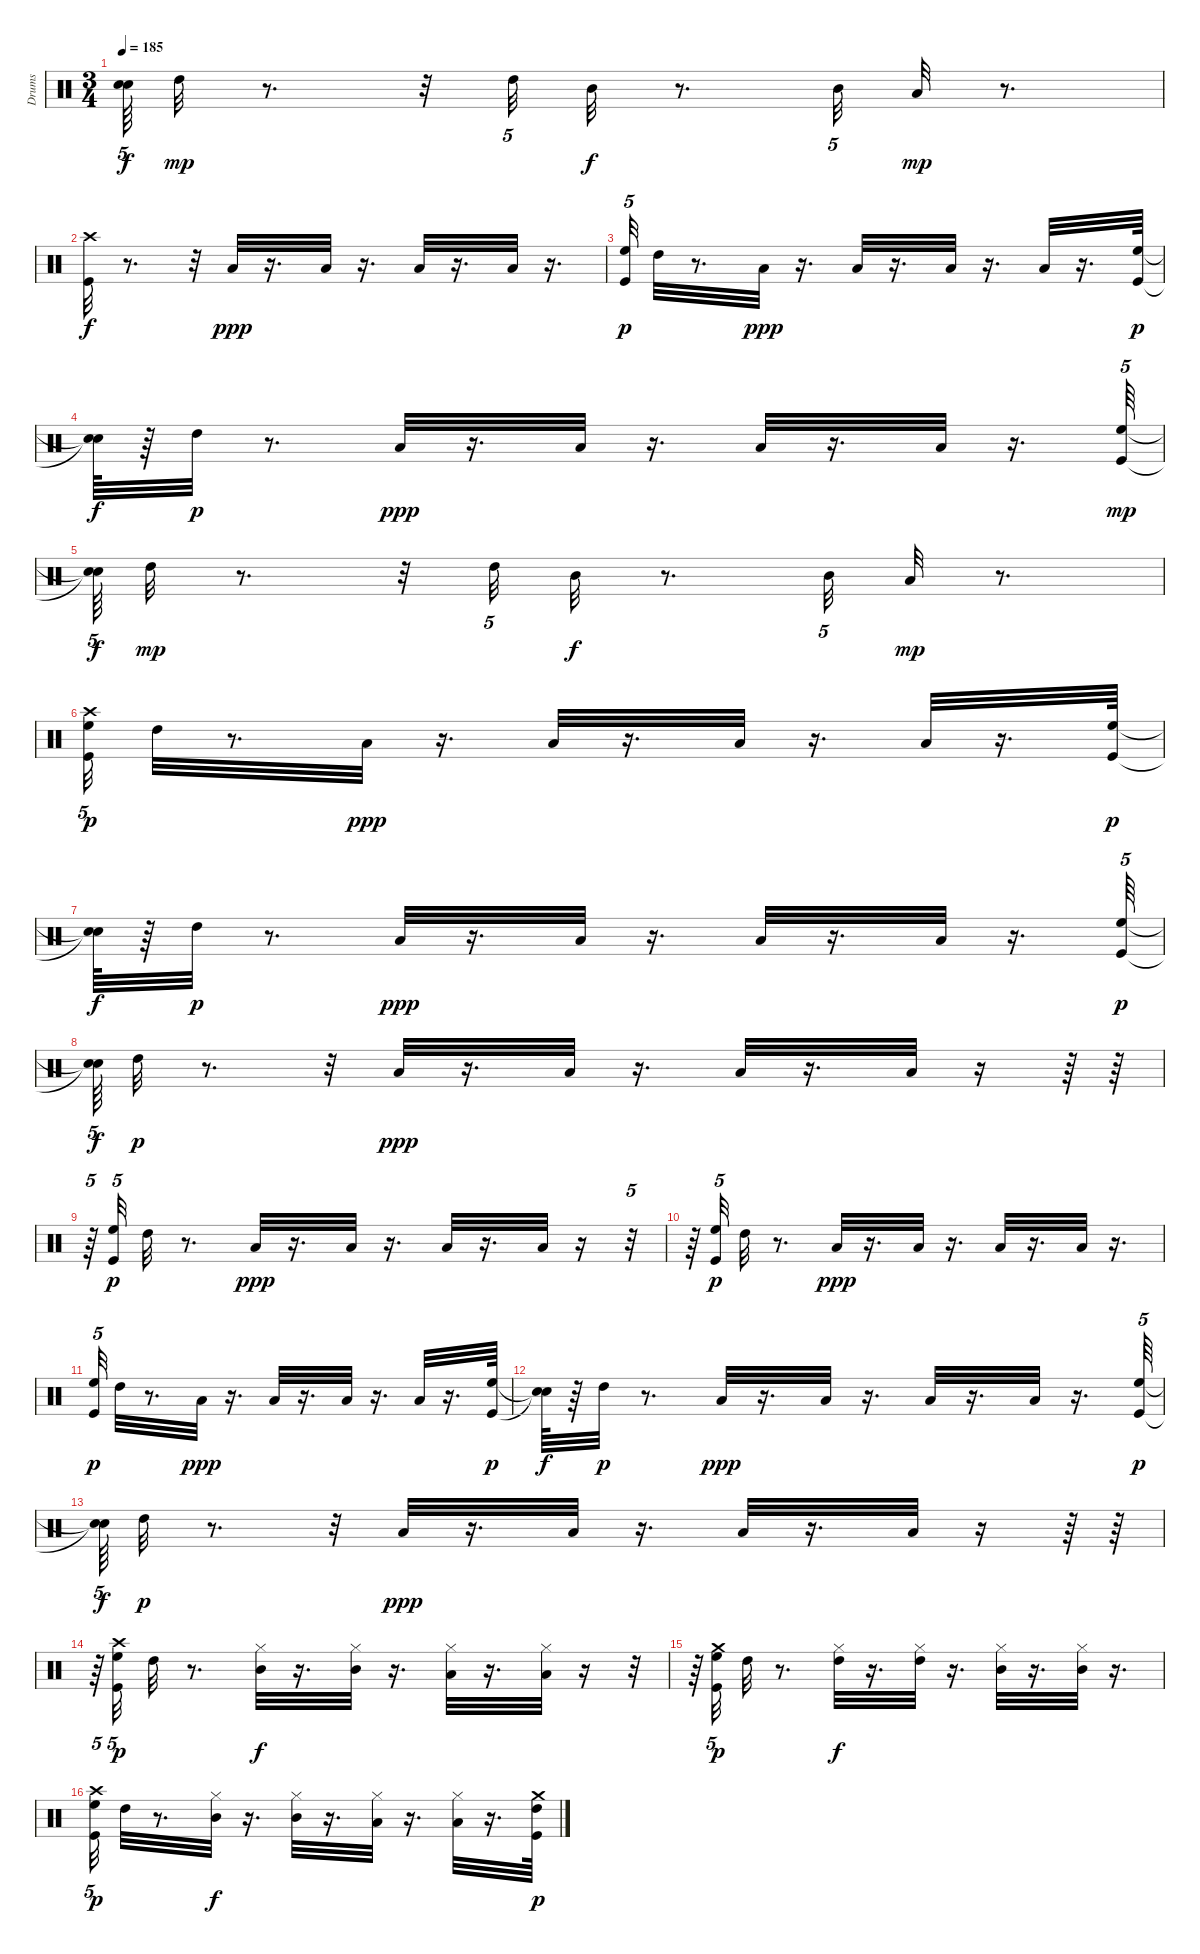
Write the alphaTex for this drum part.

\track ("Drums" "Drums") {instrument percussion}
\staff {score}
\articulation defaults
\ts (3 4)
\tempo 185
\clef neutral
\ks c
("Snare (hit)"{t} "Snare (hit)"{t}).64{tu (5 4) dy f} "High Tom (hit)".32{dy mp} r.8{d} r.32 "High Tom (hit)".32{tu (5 4)} "Mid Tom (hit)".32{dy f} r.8{d} "Mid Tom (hit)".32{tu (5 4)} "Low Tom (hit)".32{dy mp} r.8{d} |
("Crash high (hit)" "Kick (hit)").32{dy f} r.8{d} r.32 "Low Floor Tom (hit)".32{dy ppp} r.16{d} "Low Floor Tom (hit)".32 r.16{d} "Low Floor Tom (hit)".32 r.16{d} "Low Floor Tom (hit)".32 r.16{d} |
("High Floor Tom (hit)" "Kick (hit)").32{tu (5 4) dy p} "High Tom (hit)".32 r.8{d} "Low Floor Tom (hit)".32{dy ppp} r.16{d} "Low Floor Tom (hit)".32 r.16{d} "Low Floor Tom (hit)".32 r.16{d} "Low Floor Tom (hit)".32 r.16{d} ("High Floor Tom (hit)" "Kick (hit)").64{dy p} |
("Snare (hit)"{t} "Snare (hit)"{t}).64{dy f} r.64 "High Tom (hit)".32{dy p} r.8{d} "Low Floor Tom (hit)".32{dy ppp} r.16{d} "Low Floor Tom (hit)".32 r.16{d} "Low Floor Tom (hit)".32 r.16{d} "Low Floor Tom (hit)".32 r.16{d} ("High Floor Tom (hit)" "Kick (hit)").64{tu (5 4) dy mp} |
("Snare (hit)"{t} "Snare (hit)"{t}).64{tu (5 4) dy f} "High Tom (hit)".32{dy mp} r.8{d} r.32 "High Tom (hit)".32{tu (5 4)} "Mid Tom (hit)".32{dy f} r.8{d} "Mid Tom (hit)".32{tu (5 4)} "Low Tom (hit)".32{dy mp} r.8{d} |
("Crash high (hit)" "High Floor Tom (hit)" "Kick (hit)").32{tu (5 4) dy p} "High Tom (hit)".32 r.8{d} "Low Floor Tom (hit)".32{dy ppp} r.16{d} "Low Floor Tom (hit)".32 r.16{d} "Low Floor Tom (hit)".32 r.16{d} "Low Floor Tom (hit)".32 r.16{d} ("High Floor Tom (hit)" "Kick (hit)").64{dy p} |
("Snare (hit)"{t} "Snare (hit)"{t}).64{dy f} r.64 "High Tom (hit)".32{dy p} r.8{d} "Low Floor Tom (hit)".32{dy ppp} r.16{d} "Low Floor Tom (hit)".32 r.16{d} "Low Floor Tom (hit)".32 r.16{d} "Low Floor Tom (hit)".32 r.16{d} ("High Floor Tom (hit)" "Kick (hit)").64{tu (5 4) dy p} |
("Snare (hit)"{t} "Snare (hit)"{t}).64{tu (5 4) dy f} "High Tom (hit)".32{dy p} r.8{d} r.32 "Low Floor Tom (hit)".32{dy ppp} r.16{d} "Low Floor Tom (hit)".32 r.16{d} "Low Floor Tom (hit)".32 r.16{d} "Low Floor Tom (hit)".32 r.16 r.64 r.64 |
r.64{tu (5 4)} ("High Floor Tom (hit)" "Kick (hit)").32{tu (5 4) dy p} "High Tom (hit)".32 r.8{d} "Low Floor Tom (hit)".32{dy ppp} r.16{d} "Low Floor Tom (hit)".32 r.16{d} "Low Floor Tom (hit)".32 r.16{d} "Low Floor Tom (hit)".32 r.16 r.32{tu (5 4)} |
r.64 ("High Floor Tom (hit)" "Kick (hit)").32{tu (5 4) dy p} "High Tom (hit)".32 r.8{d} "Low Floor Tom (hit)".32{dy ppp} r.16{d} "Low Floor Tom (hit)".32 r.16{d} "Low Floor Tom (hit)".32 r.16{d} "Low Floor Tom (hit)".32 r.16{d} |
("High Floor Tom (hit)" "Kick (hit)").32{tu (5 4) dy p} "High Tom (hit)".32 r.8{d} "Low Floor Tom (hit)".32{dy ppp} r.16{d} "Low Floor Tom (hit)".32 r.16{d} "Low Floor Tom (hit)".32 r.16{d} "Low Floor Tom (hit)".32 r.16{d} ("Kick (hit)" "High Floor Tom (hit)").64{dy p} |
("Snare (hit)"{t} "Snare (hit)"{t}).64{dy f} r.64 "High Tom (hit)".32{dy p} r.8{d} "Low Floor Tom (hit)".32{dy ppp} r.16{d} "Low Floor Tom (hit)".32 r.16{d} "Low Floor Tom (hit)".32 r.16{d} "Low Floor Tom (hit)".32 r.16{d} ("Kick (hit)" "High Floor Tom (hit)").64{tu (5 4) dy p} |
("Snare (hit)"{t} "Snare (hit)"{t}).64{tu (5 4) dy f} "High Tom (hit)".32{dy p} r.8{d} r.32 "Low Floor Tom (hit)".32{dy ppp} r.16{d} "Low Floor Tom (hit)".32 r.16{d} "Low Floor Tom (hit)".32 r.16{d} "Low Floor Tom (hit)".32 r.16 r.64 r.64 |
r.64{tu (5 4)} ("Crash high (hit)" "High Floor Tom (hit)" "Kick (hit)").32{tu (5 4) dy p} "High Tom (hit)".32 r.8{d} ("Hi-Hat (closed)" "Mid Tom (hit)").32{dy f} r.16{d} ("Hi-Hat (closed)" "Mid Tom (hit)").32 r.16{d} ("Hi-Hat (closed)" "Low Tom (hit)").32 r.16{d} ("Hi-Hat (closed)" "Low Tom (hit)").32 r.16 r.32{tu (5 4)} |
r.64 ("High Floor Tom (hit)" "Crash medium (hit)" "Kick (hit)").32{tu (5 4) dy p} "High Tom (hit)".32 r.8{d} ("Hi-Hat (closed)" "High Tom (hit)").32{dy f} r.16{d} ("Hi-Hat (closed)" "High Tom (hit)").32 r.16{d} ("Hi-Hat (closed)" "Mid Tom (hit)").32 r.16{d} ("Hi-Hat (closed)" "Mid Tom (hit)").32 r.16{d} |
("High Floor Tom (hit)" "Kick (hit)" "Crash high (hit)").32{tu (5 4) dy p} "High Tom (hit)".32 r.8{d} ("Hi-Hat (closed)" "Mid Tom (hit)").32{dy f} r.16{d} ("Hi-Hat (closed)" "Mid Tom (hit)").32 r.16{d} ("Hi-Hat (closed)" "Low Tom (hit)").32 r.16{d} ("Hi-Hat (closed)" "Low Tom (hit)").32 r.16{d} ("High Tom (hit)" "Crash medium (hit)" "Kick (hit)").64{dy p}
